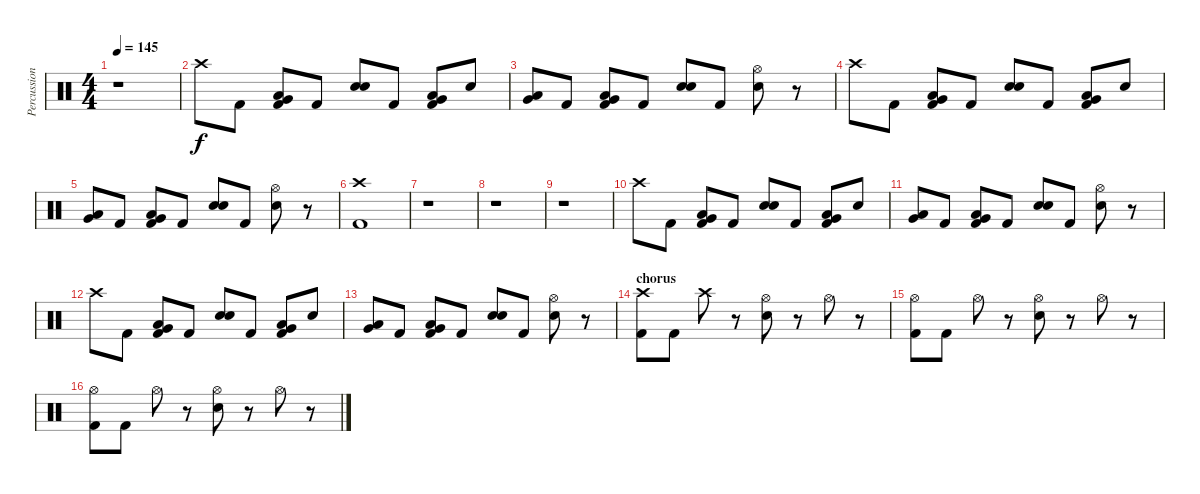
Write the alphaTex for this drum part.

\track ("Percussion" "Percussion") {instrument percussion}
\staff {score}
\articulation defaults
\ts (4 4)
\tempo 145
\clef neutral
\ks c
r.1{dy f} |
"Crash high (hit)".8 "Kick (hit) 2".8 ("Low Tom (hit)" "Very Low Tom (hit)" "Kick (hit) 2").8 "Kick (hit) 2".8 ("Electric Snare (hit)" "Electric Snare (hit)").8 "Kick (hit) 2".8 ("Low Tom (hit)" "Very Low Tom (hit)" "Kick (hit) 2").8 "Electric Snare (hit)".8 |
("Low Tom (hit)" "Very Low Tom (hit)").8 "Kick (hit) 2".8 ("Low Tom (hit)" "Very Low Tom (hit)" "Kick (hit) 2").8 "Kick (hit) 2".8 ("Electric Snare (hit)" "Electric Snare (hit)").8 "Kick (hit) 2".8 ("Hi-Hat (open)" "Electric Snare (hit)").8 r.8 |
"Crash high (hit)".8 "Kick (hit) 2".8 ("Low Tom (hit)" "Very Low Tom (hit)" "Kick (hit) 2").8 "Kick (hit) 2".8 ("Electric Snare (hit)" "Electric Snare (hit)").8 "Kick (hit) 2".8 ("Low Tom (hit)" "Very Low Tom (hit)" "Kick (hit) 2").8 "Electric Snare (hit)".8 |
("Low Tom (hit)" "Very Low Tom (hit)").8 "Kick (hit) 2".8 ("Low Tom (hit)" "Very Low Tom (hit)" "Kick (hit) 2").8 "Kick (hit) 2".8 ("Electric Snare (hit)" "Electric Snare (hit)").8 "Kick (hit) 2".8 ("Hi-Hat (open)" "Electric Snare (hit)").8 r.8 |
("Crash high (hit)" "Kick (hit) 2").1 |
r.1 |
r.1 |
r.1 |
"Crash high (hit)".8 "Kick (hit) 2".8 ("Low Tom (hit)" "Very Low Tom (hit)" "Kick (hit) 2").8 "Kick (hit) 2".8 ("Electric Snare (hit)" "Electric Snare (hit)").8 "Kick (hit) 2".8 ("Low Tom (hit)" "Very Low Tom (hit)" "Kick (hit) 2").8 "Electric Snare (hit)".8 |
("Low Tom (hit)" "Very Low Tom (hit)").8 "Kick (hit) 2".8 ("Low Tom (hit)" "Very Low Tom (hit)" "Kick (hit) 2").8 "Kick (hit) 2".8 ("Electric Snare (hit)" "Electric Snare (hit)").8 "Kick (hit) 2".8 ("Hi-Hat (open)" "Electric Snare (hit)").8 r.8 |
"Crash high (hit)".8 "Kick (hit) 2".8 ("Low Tom (hit)" "Very Low Tom (hit)" "Kick (hit) 2").8 "Kick (hit) 2".8 ("Electric Snare (hit)" "Electric Snare (hit)").8 "Kick (hit) 2".8 ("Low Tom (hit)" "Very Low Tom (hit)" "Kick (hit) 2").8 "Electric Snare (hit)".8 |
("Low Tom (hit)" "Very Low Tom (hit)").8 "Kick (hit) 2".8 ("Low Tom (hit)" "Very Low Tom (hit)" "Kick (hit) 2").8 "Kick (hit) 2".8 ("Electric Snare (hit)" "Electric Snare (hit)").8 "Kick (hit) 2".8 ("Hi-Hat (open)" "Electric Snare (hit)").8 r.8 |
\section ("" "chorus")
("Crash high (hit)" "Kick (hit) 2").8 "Kick (hit) 2".8 "Crash high (hit)".8 r.8 ("Hi-Hat (open)" "Electric Snare (hit)").8 r.8 "Hi-Hat (open)".8 r.8 |
("Hi-Hat (open)" "Kick (hit) 2").8 "Kick (hit) 2".8 "Hi-Hat (open)".8 r.8 ("Hi-Hat (open)" "Electric Snare (hit)").8 r.8 "Hi-Hat (open)".8 r.8 |
("Hi-Hat (open)" "Kick (hit) 2").8 "Kick (hit) 2".8 "Hi-Hat (open)".8 r.8 ("Hi-Hat (open)" "Electric Snare (hit)").8 r.8 "Hi-Hat (open)".8 r.8
